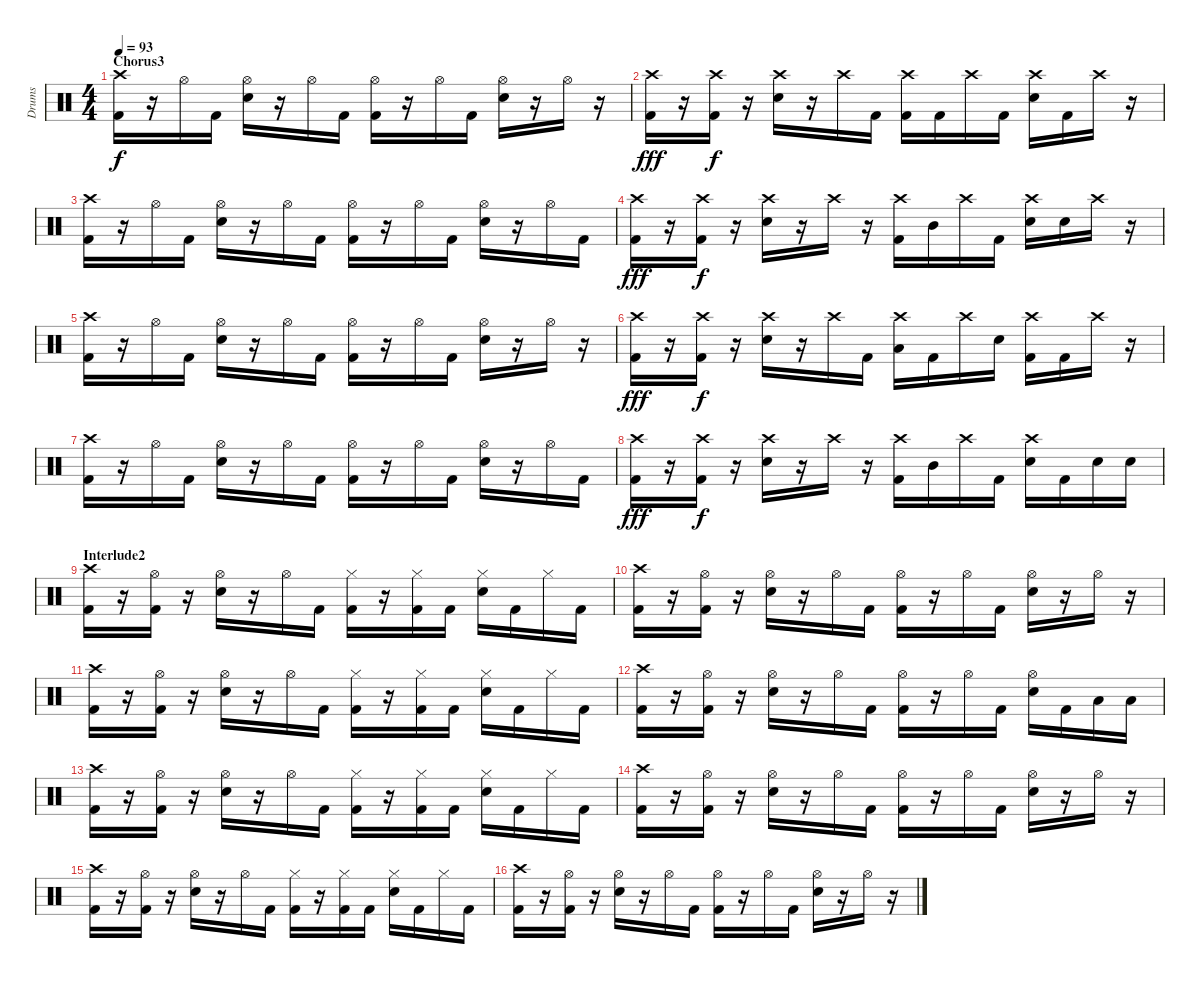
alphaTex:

\track ("Drums" "Drums") {instrument percussion}
\staff {score}
\articulation defaults
\ts (4 4)
\section ("" "Chorus3")
\tempo 93
\clef neutral
\ks c
("Crash high (hit)" "Kick (hit) 2").16{dy f} r.16 "Hi-Hat (open)".16 "Kick (hit) 2".16 ("Hi-Hat (open)" "Snare (hit) 2").16 r.16 "Hi-Hat (open)".16 "Kick (hit) 2".16 ("Hi-Hat (open)" "Kick (hit) 2").16 r.16 "Hi-Hat (open)".16 "Kick (hit) 2".16 ("Hi-Hat (open)" "Snare (hit) 2").16 r.16 "Hi-Hat (open)".16 r.16 |
("Crash high (hit)" "Kick (hit) 2").16{dy fff} r.16 ("Crash high (hit)" "Kick (hit) 2").16{dy f} r.16 ("Crash high (hit)" "Snare (hit) 2").16 r.16 "Crash high (hit)".16 "Kick (hit) 2".16 ("Crash high (hit)" "Kick (hit) 2").16 "Kick (hit) 2".16 "Crash high (hit)".16 "Kick (hit) 2".16 ("Crash high (hit)" "Snare (hit) 2").16 "Kick (hit) 2".16 "Crash high (hit)".16 r.16 |
("Crash high (hit)" "Kick (hit) 2").16 r.16 "Hi-Hat (open)".16 "Kick (hit) 2".16 ("Hi-Hat (open)" "Snare (hit) 2").16 r.16 "Hi-Hat (open)".16 "Kick (hit) 2".16 ("Hi-Hat (open)" "Kick (hit) 2").16 r.16 "Hi-Hat (open)".16 "Kick (hit) 2".16 ("Hi-Hat (open)" "Snare (hit) 2").16 r.16 "Hi-Hat (open)".16 "Kick (hit) 2".16 |
("Crash high (hit)" "Kick (hit) 2").16{dy fff} r.16 ("Crash high (hit)" "Kick (hit) 2").16{dy f} r.16 ("Crash high (hit)" "Snare (hit) 2").16 r.16 "Crash high (hit)".16 r.16 ("Crash high (hit)" "Kick (hit) 2").16 "Mid Tom (hit)".16 "Crash high (hit)".16 "Kick (hit) 2".16 ("Crash high (hit)" "Snare (hit) 2").16 "Snare (hit) 2".16 "Crash high (hit)".16 r.16 |
("Crash high (hit)" "Kick (hit) 2").16 r.16 "Hi-Hat (open)".16 "Kick (hit) 2".16 ("Hi-Hat (open)" "Snare (hit) 2").16 r.16 "Hi-Hat (open)".16 "Kick (hit) 2".16 ("Hi-Hat (open)" "Kick (hit) 2").16 r.16 "Hi-Hat (open)".16 "Kick (hit) 2".16 ("Hi-Hat (open)" "Snare (hit) 2").16 r.16 "Hi-Hat (open)".16 r.16 |
("Crash high (hit)" "Kick (hit) 2").16{dy fff} r.16 ("Crash high (hit)" "Kick (hit) 2").16{dy f} r.16 ("Crash high (hit)" "Snare (hit) 2").16 r.16 "Crash high (hit)".16 "Kick (hit) 2".16 ("Crash high (hit)" "Low Tom (hit)").16 "Kick (hit) 2".16 "Crash high (hit)".16 "Snare (hit) 2".16 ("Crash high (hit)" "Kick (hit) 2").16 "Kick (hit) 2".16 "Crash high (hit)".16 r.16 |
("Crash high (hit)" "Kick (hit) 2").16 r.16 "Hi-Hat (open)".16 "Kick (hit) 2".16 ("Hi-Hat (open)" "Snare (hit) 2").16 r.16 "Hi-Hat (open)".16 "Kick (hit) 2".16 ("Hi-Hat (open)" "Kick (hit) 2").16 r.16 "Hi-Hat (open)".16 "Kick (hit) 2".16 ("Hi-Hat (open)" "Snare (hit) 2").16 r.16 "Hi-Hat (open)".16 "Kick (hit) 2".16 |
("Crash high (hit)" "Kick (hit) 2").16{dy fff} r.16 ("Crash high (hit)" "Kick (hit) 2").16{dy f} r.16 ("Crash high (hit)" "Snare (hit) 2").16 r.16 "Crash high (hit)".16 r.16 ("Crash high (hit)" "Kick (hit) 2").16 "Mid Tom (hit)".16 "Crash high (hit)".16 "Kick (hit) 2".16 ("Crash high (hit)" "Snare (hit) 2").16 "Kick (hit) 2".16 "Snare (hit) 2".16 "Snare (hit) 2".16 |
\section ("" "Interlude2")
("Crash high (hit)" "Kick (hit) 2").16 r.16 ("Hi-Hat (open)" "Kick (hit) 2").16 r.16 ("Hi-Hat (open)" "Snare (hit) 2").16 r.16 "Hi-Hat (open)".16 "Kick (hit) 2".16 ("Hi-Hat (closed)" "Kick (hit) 2").16 r.16 ("Hi-Hat (closed)" "Kick (hit) 2").16 "Kick (hit) 2".16 ("Hi-Hat (closed)" "Snare (hit) 2").16 "Kick (hit) 2".16 "Hi-Hat (closed)".16 "Kick (hit) 2".16 |
("Crash high (hit)" "Kick (hit) 2").16 r.16 ("Hi-Hat (open)" "Kick (hit) 2").16 r.16 ("Hi-Hat (open)" "Snare (hit) 2").16 r.16 "Hi-Hat (open)".16 "Kick (hit) 2".16 ("Hi-Hat (open)" "Kick (hit) 2").16 r.16 "Hi-Hat (open)".16 "Kick (hit) 2".16 ("Hi-Hat (open)" "Snare (hit) 2").16 r.16 "Hi-Hat (open)".16 r.16 |
("Crash high (hit)" "Kick (hit) 2").16 r.16 ("Hi-Hat (open)" "Kick (hit) 2").16 r.16 ("Hi-Hat (open)" "Snare (hit) 2").16 r.16 "Hi-Hat (open)".16 "Kick (hit) 2".16 ("Hi-Hat (closed)" "Kick (hit) 2").16 r.16 ("Hi-Hat (closed)" "Kick (hit) 2").16 "Kick (hit) 2".16 ("Hi-Hat (closed)" "Snare (hit) 2").16 "Kick (hit) 2".16 "Hi-Hat (closed)".16 "Kick (hit) 2".16 |
("Crash high (hit)" "Kick (hit) 2").16 r.16 ("Hi-Hat (open)" "Kick (hit) 2").16 r.16 ("Hi-Hat (open)" "Snare (hit) 2").16 r.16 "Hi-Hat (open)".16 "Kick (hit) 2".16 ("Hi-Hat (open)" "Kick (hit) 2").16 r.16 "Hi-Hat (open)".16 "Kick (hit) 2".16 ("Hi-Hat (open)" "Snare (hit) 2").16 "Kick (hit) 2".16 "Low Tom (hit)".16 "Low Tom (hit)".16 |
("Crash high (hit)" "Kick (hit) 2").16 r.16 ("Hi-Hat (open)" "Kick (hit) 2").16 r.16 ("Hi-Hat (open)" "Snare (hit) 2").16 r.16 "Hi-Hat (open)".16 "Kick (hit) 2".16 ("Hi-Hat (closed)" "Kick (hit) 2").16 r.16 ("Hi-Hat (closed)" "Kick (hit) 2").16 "Kick (hit) 2".16 ("Hi-Hat (closed)" "Snare (hit) 2").16 "Kick (hit) 2".16 "Hi-Hat (closed)".16 "Kick (hit) 2".16 |
("Crash high (hit)" "Kick (hit) 2").16 r.16 ("Hi-Hat (open)" "Kick (hit) 2").16 r.16 ("Hi-Hat (open)" "Snare (hit) 2").16 r.16 "Hi-Hat (open)".16 "Kick (hit) 2".16 ("Hi-Hat (open)" "Kick (hit) 2").16 r.16 "Hi-Hat (open)".16 "Kick (hit) 2".16 ("Hi-Hat (open)" "Snare (hit) 2").16 r.16 "Hi-Hat (open)".16 r.16 |
("Crash high (hit)" "Kick (hit) 2").16 r.16 ("Hi-Hat (open)" "Kick (hit) 2").16 r.16 ("Hi-Hat (open)" "Snare (hit) 2").16 r.16 "Hi-Hat (open)".16 "Kick (hit) 2".16 ("Hi-Hat (closed)" "Kick (hit) 2").16 r.16 ("Hi-Hat (closed)" "Kick (hit) 2").16 "Kick (hit) 2".16 ("Hi-Hat (closed)" "Snare (hit) 2").16 "Kick (hit) 2".16 "Hi-Hat (closed)".16 "Kick (hit) 2".16 |
("Crash high (hit)" "Kick (hit) 2").16 r.16 ("Hi-Hat (open)" "Kick (hit) 2").16 r.16 ("Hi-Hat (open)" "Snare (hit) 2").16 r.16 "Hi-Hat (open)".16 "Kick (hit) 2".16 ("Hi-Hat (open)" "Kick (hit) 2").16 r.16 "Hi-Hat (open)".16 "Kick (hit) 2".16 ("Hi-Hat (open)" "Snare (hit) 2").16 r.16 "Hi-Hat (open)".16 r.16
